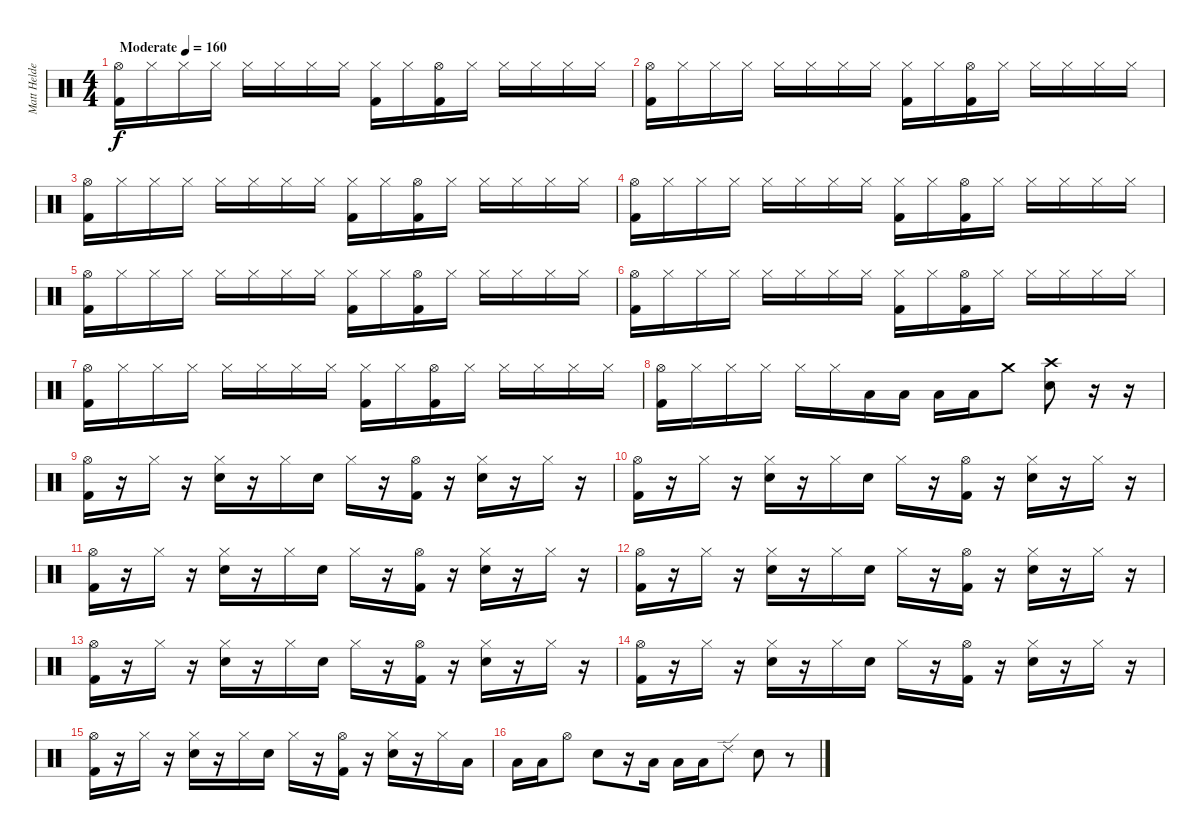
\track ("Matt Helders" "Matt Helde") {instrument percussion}
\staff {score}
\articulation defaults
\ts (4 4)
\tempo (160 "Moderate")
\clef neutral
\ks c
("Hi-Hat (open)" "Kick (hit) 2").16{dy f} "Hi-Hat (closed)".16 "Hi-Hat (closed)".16 "Hi-Hat (closed)".16 "Hi-Hat (closed)".16 "Hi-Hat (closed)".16 "Hi-Hat (closed)".16 "Hi-Hat (closed)".16 ("Hi-Hat (closed)" "Kick (hit) 2").16 "Hi-Hat (closed)".16 ("Hi-Hat (open)" "Kick (hit) 2").16 "Hi-Hat (closed)".16 "Hi-Hat (closed)".16 "Hi-Hat (closed)".16 "Hi-Hat (closed)".16 "Hi-Hat (closed)".16 |
("Hi-Hat (open)" "Kick (hit) 2").16 "Hi-Hat (closed)".16 "Hi-Hat (closed)".16 "Hi-Hat (closed)".16 "Hi-Hat (closed)".16 "Hi-Hat (closed)".16 "Hi-Hat (closed)".16 "Hi-Hat (closed)".16 ("Hi-Hat (closed)" "Kick (hit) 2").16 "Hi-Hat (closed)".16 ("Hi-Hat (open)" "Kick (hit) 2").16 "Hi-Hat (closed)".16 "Hi-Hat (closed)".16 "Hi-Hat (closed)".16 "Hi-Hat (closed)".16 "Hi-Hat (closed)".16 |
("Hi-Hat (open)" "Kick (hit) 2").16 "Hi-Hat (closed)".16 "Hi-Hat (closed)".16 "Hi-Hat (closed)".16 "Hi-Hat (closed)".16 "Hi-Hat (closed)".16 "Hi-Hat (closed)".16 "Hi-Hat (closed)".16 ("Hi-Hat (closed)" "Kick (hit) 2").16 "Hi-Hat (closed)".16 ("Hi-Hat (open)" "Kick (hit) 2").16 "Hi-Hat (closed)".16 "Hi-Hat (closed)".16 "Hi-Hat (closed)".16 "Hi-Hat (closed)".16 "Hi-Hat (closed)".16 |
("Hi-Hat (open)" "Kick (hit) 2").16 "Hi-Hat (closed)".16 "Hi-Hat (closed)".16 "Hi-Hat (closed)".16 "Hi-Hat (closed)".16 "Hi-Hat (closed)".16 "Hi-Hat (closed)".16 "Hi-Hat (closed)".16 ("Hi-Hat (closed)" "Kick (hit) 2").16 "Hi-Hat (closed)".16 ("Hi-Hat (open)" "Kick (hit) 2").16 "Hi-Hat (closed)".16 "Hi-Hat (closed)".16 "Hi-Hat (closed)".16 "Hi-Hat (closed)".16 "Hi-Hat (closed)".16 |
("Hi-Hat (open)" "Kick (hit) 2").16 "Hi-Hat (closed)".16 "Hi-Hat (closed)".16 "Hi-Hat (closed)".16 "Hi-Hat (closed)".16 "Hi-Hat (closed)".16 "Hi-Hat (closed)".16 "Hi-Hat (closed)".16 ("Hi-Hat (closed)" "Kick (hit) 2").16 "Hi-Hat (closed)".16 ("Hi-Hat (open)" "Kick (hit) 2").16 "Hi-Hat (closed)".16 "Hi-Hat (closed)".16 "Hi-Hat (closed)".16 "Hi-Hat (closed)".16 "Hi-Hat (closed)".16 |
("Hi-Hat (open)" "Kick (hit) 2").16 "Hi-Hat (closed)".16 "Hi-Hat (closed)".16 "Hi-Hat (closed)".16 "Hi-Hat (closed)".16 "Hi-Hat (closed)".16 "Hi-Hat (closed)".16 "Hi-Hat (closed)".16 ("Hi-Hat (closed)" "Kick (hit) 2").16 "Hi-Hat (closed)".16 ("Hi-Hat (open)" "Kick (hit) 2").16 "Hi-Hat (closed)".16 "Hi-Hat (closed)".16 "Hi-Hat (closed)".16 "Hi-Hat (closed)".16 "Hi-Hat (closed)".16 |
("Hi-Hat (open)" "Kick (hit) 2").16 "Hi-Hat (closed)".16 "Hi-Hat (closed)".16 "Hi-Hat (closed)".16 "Hi-Hat (closed)".16 "Hi-Hat (closed)".16 "Hi-Hat (closed)".16 "Hi-Hat (closed)".16 ("Hi-Hat (closed)" "Kick (hit) 2").16 "Hi-Hat (closed)".16 ("Hi-Hat (open)" "Kick (hit) 2").16 "Hi-Hat (closed)".16 "Hi-Hat (closed)".16 "Hi-Hat (closed)".16 "Hi-Hat (closed)".16 "Hi-Hat (closed)".16 |
("Hi-Hat (open)" "Kick (hit) 2").16 "Hi-Hat (closed)".16 "Hi-Hat (closed)".16 "Hi-Hat (closed)".16 "Hi-Hat (closed)".16 "Hi-Hat (closed)".16 "Low Tom (hit)".16 "Low Tom (hit)".16 "Low Tom (hit)".16 "Low Tom (hit)".16 "Crash medium (hit)".8 ("Crash high (hit)" "Snare (hit) 2").8 r.16 r.16 |
("Hi-Hat (open)" "Kick (hit) 2").16 r.16 "Hi-Hat (closed)".16 r.16 ("Hi-Hat (closed)" "Snare (hit) 2").16 r.16 "Hi-Hat (closed)".16 "Snare (hit) 2".16 "Hi-Hat (closed)".16 r.16 ("Hi-Hat (open)" "Kick (hit) 2").16 r.16 ("Hi-Hat (closed)" "Snare (hit) 2").16 r.16 "Hi-Hat (closed)".16 r.16 |
("Hi-Hat (open)" "Kick (hit) 2").16 r.16 "Hi-Hat (closed)".16 r.16 ("Hi-Hat (closed)" "Snare (hit) 2").16 r.16 "Hi-Hat (closed)".16 "Snare (hit) 2".16 "Hi-Hat (closed)".16 r.16 ("Hi-Hat (open)" "Kick (hit) 2").16 r.16 ("Hi-Hat (closed)" "Snare (hit) 2").16 r.16 "Hi-Hat (closed)".16 r.16 |
("Hi-Hat (open)" "Kick (hit) 2").16 r.16 "Hi-Hat (closed)".16 r.16 ("Hi-Hat (closed)" "Snare (hit) 2").16 r.16 "Hi-Hat (closed)".16 "Snare (hit) 2".16 "Hi-Hat (closed)".16 r.16 ("Hi-Hat (open)" "Kick (hit) 2").16 r.16 ("Hi-Hat (closed)" "Snare (hit) 2").16 r.16 "Hi-Hat (closed)".16 r.16 |
("Hi-Hat (open)" "Kick (hit) 2").16 r.16 "Hi-Hat (closed)".16 r.16 ("Hi-Hat (closed)" "Snare (hit) 2").16 r.16 "Hi-Hat (closed)".16 "Snare (hit) 2".16 "Hi-Hat (closed)".16 r.16 ("Hi-Hat (open)" "Kick (hit) 2").16 r.16 ("Hi-Hat (closed)" "Snare (hit) 2").16 r.16 "Hi-Hat (closed)".16 r.16 |
("Hi-Hat (open)" "Kick (hit) 2").16 r.16 "Hi-Hat (closed)".16 r.16 ("Hi-Hat (closed)" "Snare (hit) 2").16 r.16 "Hi-Hat (closed)".16 "Snare (hit) 2".16 "Hi-Hat (closed)".16 r.16 ("Hi-Hat (open)" "Kick (hit) 2").16 r.16 ("Hi-Hat (closed)" "Snare (hit) 2").16 r.16 "Hi-Hat (closed)".16 r.16 |
("Hi-Hat (open)" "Kick (hit) 2").16 r.16 "Hi-Hat (closed)".16 r.16 ("Hi-Hat (closed)" "Snare (hit) 2").16 r.16 "Hi-Hat (closed)".16 "Snare (hit) 2".16 "Hi-Hat (closed)".16 r.16 ("Hi-Hat (open)" "Kick (hit) 2").16 r.16 ("Hi-Hat (closed)" "Snare (hit) 2").16 r.16 "Hi-Hat (closed)".16 r.16 |
("Hi-Hat (open)" "Kick (hit) 2").16 r.16 "Hi-Hat (closed)".16 r.16 ("Hi-Hat (closed)" "Snare (hit) 2").16 r.16 "Hi-Hat (closed)".16 "Snare (hit) 2".16 "Hi-Hat (closed)".16 r.16 ("Hi-Hat (open)" "Kick (hit) 2").16 r.16 ("Hi-Hat (closed)" "Snare (hit) 2").16 r.16 "Hi-Hat (closed)".16 "Low Tom (hit)".16 |
"Low Tom (hit)".16 "Low Tom (hit)".16 "Hi-Hat (open)".8 "Snare (hit) 2".8 r.16 "Low Tom (hit)".16 "Low Tom (hit)".16 "Low Tom (hit)".16 "Ride (edge) 2".8 "Snare (hit) 2".8 r.8
